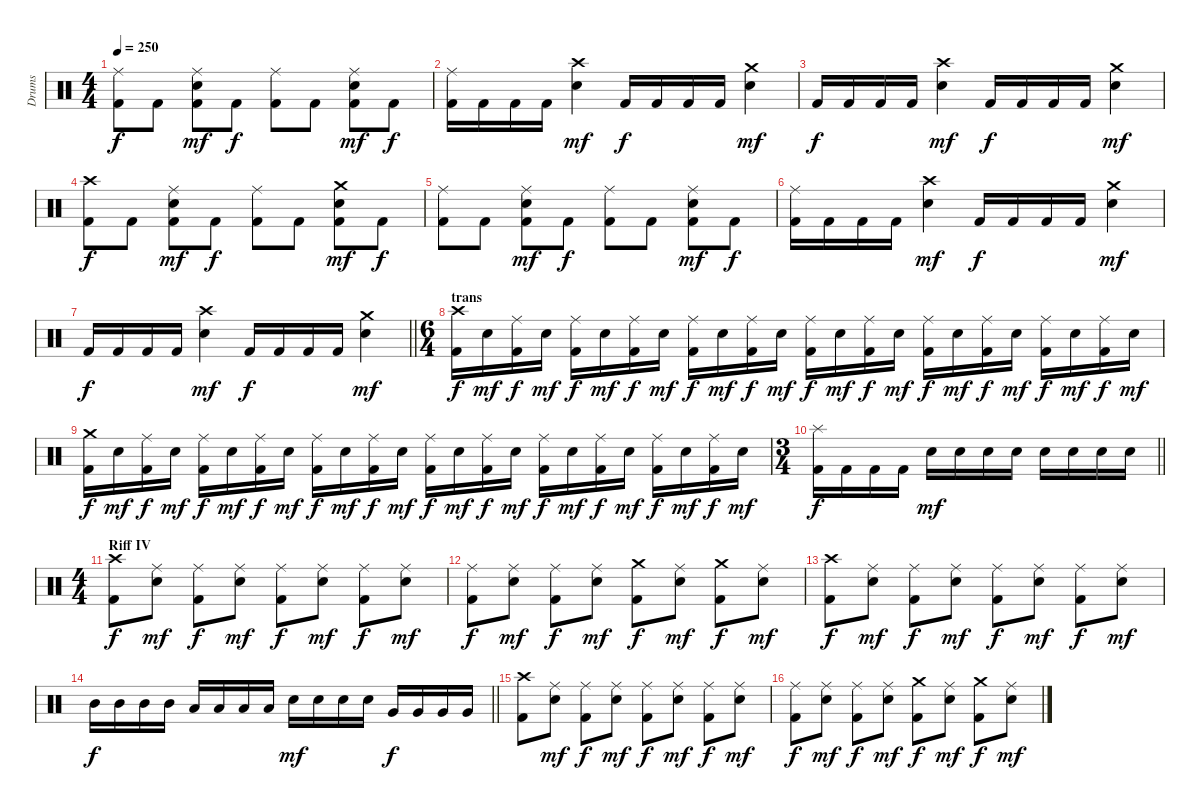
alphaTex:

\track ("Drums" "Drums") {instrument percussion}
\staff {score}
\articulation defaults
\ts (4 4)
\tempo 250
\clef neutral
\ks c
("Ride (middle)" "Kick (hit) 2").8{dy f} "Kick (hit) 2".8 ("Ride (middle)" "Electric Snare (hit)" "Kick (hit) 2").8{dy mf} "Kick (hit) 2".8{dy f} ("Ride (middle)" "Kick (hit) 2").8 "Kick (hit) 2".8 ("Ride (middle)" "Electric Snare (hit)" "Kick (hit) 2").8{dy mf} "Kick (hit) 2".8{dy f} |
("Ride (middle)" "Kick (hit) 2").16 "Kick (hit) 2".16 "Kick (hit) 2".16 "Kick (hit) 2".16 ("Crash high (hit)" "Electric Snare (hit)").4{dy mf} "Kick (hit) 2".16{dy f} "Kick (hit) 2".16 "Kick (hit) 2".16 "Kick (hit) 2".16 ("Crash medium (hit)" "Electric Snare (hit)").4{dy mf} |
"Kick (hit) 2".16{dy f} "Kick (hit) 2".16 "Kick (hit) 2".16 "Kick (hit) 2".16 ("Crash high (hit)" "Electric Snare (hit)").4{dy mf} "Kick (hit) 2".16{dy f} "Kick (hit) 2".16 "Kick (hit) 2".16 "Kick (hit) 2".16 ("Crash medium (hit)" "Electric Snare (hit)").4{dy mf} |
("Crash high (hit)" "Kick (hit) 2").8{dy f} "Kick (hit) 2".8 ("Ride (middle)" "Electric Snare (hit)" "Kick (hit) 2").8{dy mf} "Kick (hit) 2".8{dy f} ("Ride (middle)" "Kick (hit) 2").8 "Kick (hit) 2".8 ("Crash medium (hit)" "Electric Snare (hit)" "Kick (hit) 2").8{dy mf} "Kick (hit) 2".8{dy f} |
("Ride (middle)" "Kick (hit) 2").8 "Kick (hit) 2".8 ("Ride (middle)" "Electric Snare (hit)" "Kick (hit) 2").8{dy mf} "Kick (hit) 2".8{dy f} ("Ride (middle)" "Kick (hit) 2").8 "Kick (hit) 2".8 ("Ride (middle)" "Electric Snare (hit)" "Kick (hit) 2").8{dy mf} "Kick (hit) 2".8{dy f} |
("Ride (middle)" "Kick (hit) 2").16 "Kick (hit) 2".16 "Kick (hit) 2".16 "Kick (hit) 2".16 ("Crash high (hit)" "Electric Snare (hit)").4{dy mf} "Kick (hit) 2".16{dy f} "Kick (hit) 2".16 "Kick (hit) 2".16 "Kick (hit) 2".16 ("Crash medium (hit)" "Electric Snare (hit)").4{dy mf} |
\barLineRight lightlight "Kick (hit) 2".16{dy f} "Kick (hit) 2".16 "Kick (hit) 2".16 "Kick (hit) 2".16
("Crash high (hit)" "Electric Snare (hit)").4{dy mf} "Kick (hit) 2".16{dy f} "Kick (hit) 2".16 "Kick (hit) 2".16 "Kick (hit) 2".16 ("Crash medium (hit)" "Electric Snare (hit)").4{dy mf} |
\ts (6 4)
\section ("" "trans")
("Crash high (hit)" "Kick (hit) 2").16{dy f} "Electric Snare (hit)".16{dy mf} ("Ride (middle)" "Kick (hit) 2").16{dy f} "Electric Snare (hit)".16{dy mf} ("Ride (middle)" "Kick (hit) 2").16{dy f} "Electric Snare (hit)".16{dy mf} ("Ride (middle)" "Kick (hit) 2").16{dy f} "Electric Snare (hit)".16{dy mf} ("Ride (middle)" "Kick (hit) 2").16{dy f} "Electric Snare (hit)".16{dy mf} ("Ride (middle)" "Kick (hit) 2").16{dy f} "Electric Snare (hit)".16{dy mf} ("Ride (middle)" "Kick (hit) 2").16{dy f} "Electric Snare (hit)".16{dy mf} ("Ride (middle)" "Kick (hit) 2").16{dy f} "Electric Snare (hit)".16{dy mf} ("Ride (middle)" "Kick (hit) 2").16{dy f} "Electric Snare (hit)".16{dy mf} ("Ride (middle)" "Kick (hit) 2").16{dy f} "Electric Snare (hit)".16{dy mf} ("Ride (middle)" "Kick (hit) 2").16{dy f} "Electric Snare (hit)".16{dy mf} ("Ride (middle)" "Kick (hit) 2").16{dy f} "Electric Snare (hit)".16{dy mf} |
("Crash medium (hit)" "Kick (hit) 2").16{dy f} "Electric Snare (hit)".16{dy mf} ("Ride (middle)" "Kick (hit) 2").16{dy f} "Electric Snare (hit)".16{dy mf} ("Ride (middle)" "Kick (hit) 2").16{dy f} "Electric Snare (hit)".16{dy mf} ("Ride (middle)" "Kick (hit) 2").16{dy f} "Electric Snare (hit)".16{dy mf} ("Ride (middle)" "Kick (hit) 2").16{dy f} "Electric Snare (hit)".16{dy mf} ("Ride (middle)" "Kick (hit) 2").16{dy f} "Electric Snare (hit)".16{dy mf} ("Ride (middle)" "Kick (hit) 2").16{dy f} "Electric Snare (hit)".16{dy mf} ("Ride (middle)" "Kick (hit) 2").16{dy f} "Electric Snare (hit)".16{dy mf} ("Ride (middle)" "Kick (hit) 2").16{dy f} "Electric Snare (hit)".16{dy mf} ("Ride (middle)" "Kick (hit) 2").16{dy f} "Electric Snare (hit)".16{dy mf} ("Ride (middle)" "Kick (hit) 2").16{dy f} "Electric Snare (hit)".16{dy mf} ("Ride (middle)" "Kick (hit) 2").16{dy f} "Electric Snare (hit)".16{dy mf} |
\ts (3 4)
\barLineRight lightlight
("Splash (hit)" "Kick (hit) 2").16{dy f} "Kick (hit) 2".16 "Kick (hit) 2".16 "Kick (hit) 2".16 "Electric Snare (hit)".16{dy mf} "Electric Snare (hit)".16 "Electric Snare (hit)".16 "Electric Snare (hit)".16 "Electric Snare (hit)".16 "Electric Snare (hit)".16 "Electric Snare (hit)".16 "Electric Snare (hit)".16 |
\ts (4 4)
\section ("" "Riff IV")
("Crash high (hit)" "Kick (hit) 2").8{dy f} ("Ride (middle)" "Electric Snare (hit)").8{dy mf} ("Ride (middle)" "Kick (hit) 2").8{dy f} ("Ride (middle)" "Electric Snare (hit)").8{dy mf} ("Ride (middle)" "Kick (hit) 2").8{dy f} ("Ride (middle)" "Electric Snare (hit)").8{dy mf} ("Ride (middle)" "Kick (hit) 2").8{dy f} ("Ride (middle)" "Electric Snare (hit)").8{dy mf} |
("Ride (middle)" "Kick (hit) 2").8{dy f} ("Ride (middle)" "Electric Snare (hit)").8{dy mf} ("Ride (middle)" "Kick (hit) 2").8{dy f} ("Ride (middle)" "Electric Snare (hit)").8{dy mf} ("Crash medium (hit)" "Kick (hit) 2").8{dy f} ("Ride (middle)" "Electric Snare (hit)").8{dy mf} ("Crash medium (hit)" "Kick (hit) 2").8{dy f} ("Ride (middle)" "Electric Snare (hit)").8{dy mf} |
("Crash high (hit)" "Kick (hit) 2").8{dy f} ("Ride (middle)" "Electric Snare (hit)").8{dy mf} ("Ride (middle)" "Kick (hit) 2").8{dy f} ("Ride (middle)" "Electric Snare (hit)").8{dy mf} ("Ride (middle)" "Kick (hit) 2").8{dy f} ("Ride (middle)" "Electric Snare (hit)").8{dy mf} ("Ride (middle)" "Kick (hit) 2").8{dy f} ("Ride (middle)" "Electric Snare (hit)").8{dy mf} |
\barLineRight lightlight "Mid Tom (hit)".16{dy f} "Mid Tom (hit)".16 "Mid Tom (hit)".16 "Mid Tom (hit)".16 "Low Tom (hit)".16 "Low Tom (hit)".16 "Low Tom (hit)".16 "Low Tom (hit)".16 "Electric Snare (hit)".16{dy mf} "Electric Snare (hit)".16 "Electric Snare (hit)".16 "Electric Snare (hit)".16 "Very Low Tom (hit)".16{dy f} "Very Low Tom (hit)".16 "Very Low Tom (hit)".16 "Very Low Tom (hit)".16
|
("Crash high (hit)" "Kick (hit) 2").8 ("Ride (middle)" "Electric Snare (hit)").8{dy mf} ("Ride (middle)" "Kick (hit) 2").8{dy f} ("Ride (middle)" "Electric Snare (hit)").8{dy mf} ("Ride (middle)" "Kick (hit) 2").8{dy f} ("Ride (middle)" "Electric Snare (hit)").8{dy mf} ("Ride (middle)" "Kick (hit) 2").8{dy f} ("Ride (middle)" "Electric Snare (hit)").8{dy mf} |
("Ride (middle)" "Kick (hit) 2").8{dy f} ("Ride (middle)" "Electric Snare (hit)").8{dy mf} ("Ride (middle)" "Kick (hit) 2").8{dy f} ("Ride (middle)" "Electric Snare (hit)").8{dy mf} ("Crash medium (hit)" "Kick (hit) 2").8{dy f} ("Ride (middle)" "Electric Snare (hit)").8{dy mf} ("Crash medium (hit)" "Kick (hit) 2").8{dy f} ("Ride (middle)" "Electric Snare (hit)").8{dy mf}
